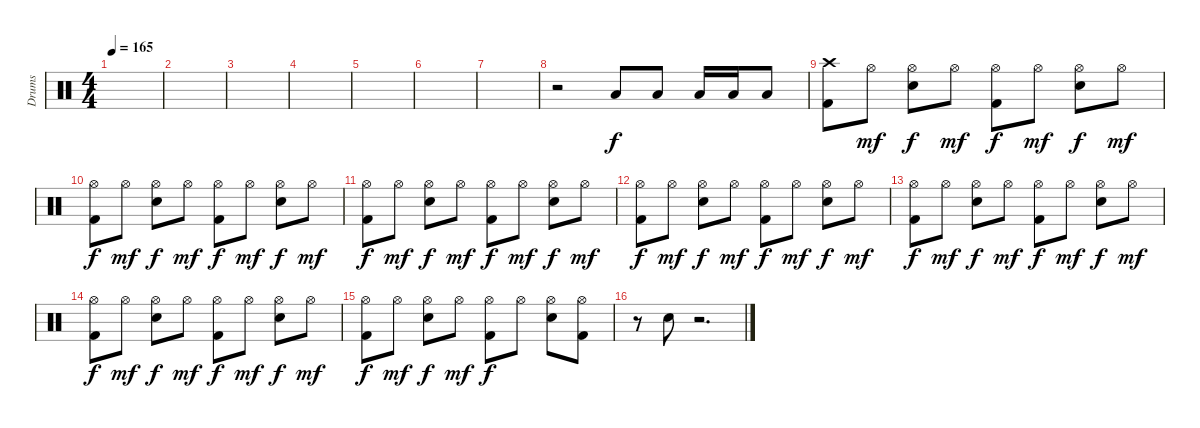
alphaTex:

\track ("Drums" "Drums") {instrument percussion}
\staff {score}
\articulation defaults
\ts (4 4)
\tempo 165
\clef neutral
\ks c
|
|
|
|
|
|
|
r.2 "Low Floor Tom (hit)".8 "Low Floor Tom (hit)".8 "Low Floor Tom (hit)".16 "Low Floor Tom (hit)".16 "Low Floor Tom (hit)".8 |
("Crash high (hit)" "Kick (hit) 2").8 "Hi-Hat (open)".8{dy mf} ("Hi-Hat (open)" "Electric Snare (hit)").8{dy f} "Hi-Hat (open)".8{dy mf} ("Hi-Hat (open)" "Kick (hit) 2").8{dy f} "Hi-Hat (open)".8{dy mf} ("Hi-Hat (open)" "Electric Snare (hit)").8{dy f} "Hi-Hat (open)".8{dy mf} |
("Hi-Hat (open)" "Kick (hit) 2").8{dy f} "Hi-Hat (open)".8{dy mf} ("Hi-Hat (open)" "Electric Snare (hit)").8{dy f} "Hi-Hat (open)".8{dy mf} ("Hi-Hat (open)" "Kick (hit) 2").8{dy f} "Hi-Hat (open)".8{dy mf} ("Hi-Hat (open)" "Electric Snare (hit)").8{dy f} "Hi-Hat (open)".8{dy mf} |
("Hi-Hat (open)" "Kick (hit) 2").8{dy f} "Hi-Hat (open)".8{dy mf} ("Hi-Hat (open)" "Electric Snare (hit)").8{dy f} "Hi-Hat (open)".8{dy mf} ("Hi-Hat (open)" "Kick (hit) 2").8{dy f} "Hi-Hat (open)".8{dy mf} ("Hi-Hat (open)" "Electric Snare (hit)").8{dy f} "Hi-Hat (open)".8{dy mf} |
("Hi-Hat (open)" "Kick (hit) 2").8{dy f} "Hi-Hat (open)".8{dy mf} ("Hi-Hat (open)" "Electric Snare (hit)").8{dy f} "Hi-Hat (open)".8{dy mf} ("Hi-Hat (open)" "Kick (hit) 2").8{dy f} "Hi-Hat (open)".8{dy mf} ("Hi-Hat (open)" "Electric Snare (hit)").8{dy f} "Hi-Hat (open)".8{dy mf} |
("Hi-Hat (open)" "Kick (hit) 2").8{dy f} "Hi-Hat (open)".8{dy mf} ("Hi-Hat (open)" "Electric Snare (hit)").8{dy f} "Hi-Hat (open)".8{dy mf} ("Hi-Hat (open)" "Kick (hit) 2").8{dy f} "Hi-Hat (open)".8{dy mf} ("Hi-Hat (open)" "Electric Snare (hit)").8{dy f} "Hi-Hat (open)".8{dy mf} |
("Hi-Hat (open)" "Kick (hit) 2").8{dy f} "Hi-Hat (open)".8{dy mf} ("Hi-Hat (open)" "Electric Snare (hit)").8{dy f} "Hi-Hat (open)".8{dy mf} ("Hi-Hat (open)" "Kick (hit) 2").8{dy f} "Hi-Hat (open)".8{dy mf} ("Hi-Hat (open)" "Electric Snare (hit)").8{dy f} "Hi-Hat (open)".8{dy mf} |
("Hi-Hat (open)" "Kick (hit) 2").8{dy f} "Hi-Hat (open)".8{dy mf} ("Hi-Hat (open)" "Electric Snare (hit)").8{dy f} "Hi-Hat (open)".8{dy mf} ("Hi-Hat (open)" "Kick (hit) 2").8{dy f} "Hi-Hat (open)".8 ("Hi-Hat (open)" "Electric Snare (hit)").8 ("Hi-Hat (open)" "Kick (hit) 2").8 |
r.8 "Electric Snare (hit)".8 r.2{d}
